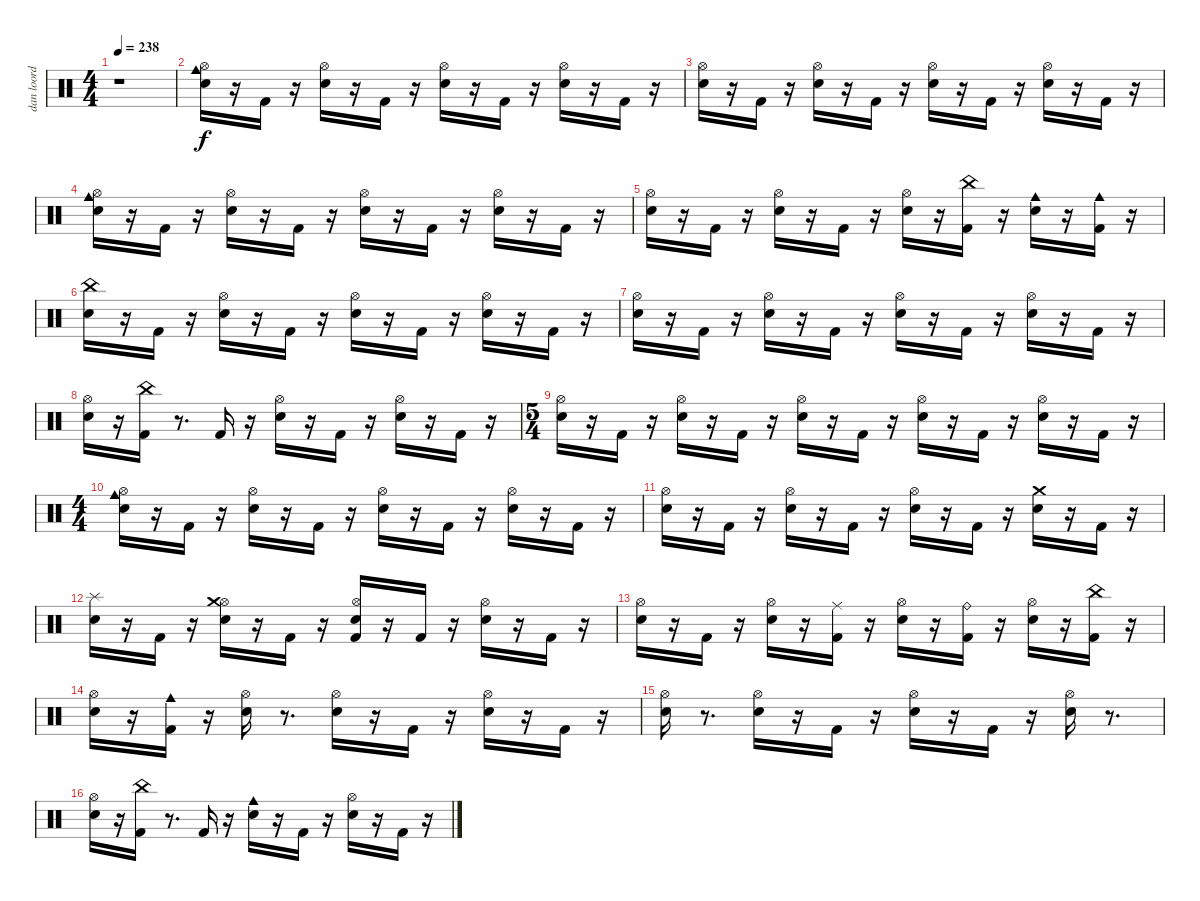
\track ("dan loord foord" "dan loord ") {instrument percussion}
\staff {score}
\articulation defaults
\ts (4 4)
\tempo 238
\clef neutral
\ks c
r.1{dy f} |
("Snare (hit) 2" "Hi-Hat (open)" "Cowbell medium (hit)").16 r.16 "Kick (hit) 2".16 r.16 ("Snare (hit) 2" "Hi-Hat (open)").16 r.16 "Kick (hit) 2".16 r.16 ("Snare (hit) 2" "Hi-Hat (open)").16 r.16 "Kick (hit) 2".16 r.16 ("Snare (hit) 2" "Hi-Hat (open)").16 r.16 "Kick (hit) 2".16 r.16 |
("Snare (hit) 2" "Hi-Hat (open)").16 r.16 "Kick (hit) 2".16 r.16 ("Snare (hit) 2" "Hi-Hat (open)").16 r.16 "Kick (hit) 2".16 r.16 ("Snare (hit) 2" "Hi-Hat (open)").16 r.16 "Kick (hit) 2".16 r.16 ("Snare (hit) 2" "Hi-Hat (open)").16 r.16 "Kick (hit) 2".16 r.16 |
("Snare (hit) 2" "Hi-Hat (open)" "Cowbell medium (hit)").16 r.16 "Kick (hit) 2".16 r.16 ("Snare (hit) 2" "Hi-Hat (open)").16 r.16 "Kick (hit) 2".16 r.16 ("Snare (hit) 2" "Hi-Hat (open)").16 r.16 "Kick (hit) 2".16 r.16 ("Snare (hit) 2" "Hi-Hat (open)").16 r.16 "Kick (hit) 2".16 r.16 |
("Snare (hit) 2" "Hi-Hat (open)").16 r.16 "Kick (hit) 2".16 r.16 ("Snare (hit) 2" "Hi-Hat (open)").16 r.16 "Kick (hit) 2".16 r.16 ("Snare (hit) 2" "Hi-Hat (open)").16 r.16 ("Kick (hit) 2" "China (hit)").16 r.16 ("Snare (hit) 2" "Cowbell medium (hit)").16 r.16 ("Kick (hit) 2" "Cowbell medium (hit)").16 r.16 |
("Snare (hit) 2" "China (hit)").16 r.16 "Kick (hit) 2".16 r.16 ("Snare (hit) 2" "Hi-Hat (open)").16 r.16 "Kick (hit) 2".16 r.16 ("Snare (hit) 2" "Hi-Hat (open)").16 r.16 "Kick (hit) 2".16 r.16 ("Snare (hit) 2" "Hi-Hat (open)").16 r.16 "Kick (hit) 2".16 r.16 |
("Snare (hit) 2" "Hi-Hat (open)").16 r.16 "Kick (hit) 2".16 r.16 ("Snare (hit) 2" "Hi-Hat (open)").16 r.16 "Kick (hit) 2".16 r.16 ("Snare (hit) 2" "Hi-Hat (open)").16 r.16 "Kick (hit) 2".16 r.16 ("Snare (hit) 2" "Hi-Hat (open)").16 r.16 "Kick (hit) 2".16 r.16 |
("Snare (hit) 2" "Hi-Hat (open)").16 r.16 ("Kick (hit) 2" "China (hit)").16 r.8{d} "Kick (hit) 2".16 r.16 ("Snare (hit) 2" "Hi-Hat (open)").16 r.16 "Kick (hit) 2".16 r.16 ("Snare (hit) 2" "Hi-Hat (open)").16 r.16 "Kick (hit) 2".16 r.16 |
\ts (5 4)
("Snare (hit) 2" "Hi-Hat (open)").16 r.16 "Kick (hit) 2".16 r.16 ("Snare (hit) 2" "Hi-Hat (open)").16 r.16 "Kick (hit) 2".16 r.16 ("Snare (hit) 2" "Hi-Hat (open)").16 r.16 "Kick (hit) 2".16 r.16 ("Snare (hit) 2" "Hi-Hat (open)").16 r.16 "Kick (hit) 2".16 r.16 ("Snare (hit) 2" "Hi-Hat (open)").16 r.16 "Kick (hit) 2".16 r.16 |
\ts (4 4)
("Snare (hit) 2" "Hi-Hat (open)" "Cowbell medium (hit)").16 r.16 "Kick (hit) 2".16 r.16 ("Snare (hit) 2" "Hi-Hat (open)").16 r.16 "Kick (hit) 2".16 r.16 ("Snare (hit) 2" "Hi-Hat (open)").16 r.16 "Kick (hit) 2".16 r.16 ("Snare (hit) 2" "Hi-Hat (open)").16 r.16 "Kick (hit) 2".16 r.16 |
("Snare (hit) 2" "Hi-Hat (open)").16 r.16 "Kick (hit) 2".16 r.16 ("Snare (hit) 2" "Hi-Hat (open)").16 r.16 "Kick (hit) 2".16 r.16 ("Snare (hit) 2" "Hi-Hat (open)").16 r.16 "Kick (hit) 2".16 r.16 ("Snare (hit) 2" "Crash medium (hit)").16 r.16 "Kick (hit) 2".16 r.16 |
("Snare (hit) 2" "Splash (hit)").16 r.16 "Kick (hit) 2".16 r.16 ("Snare (hit) 2" "Hi-Hat (open)" "Crash medium (hit)").16 r.16 "Kick (hit) 2".16 r.16 ("Kick (hit) 2" "Snare (hit) 2" "Hi-Hat (open)").16 r.16 "Kick (hit) 2".16 r.16 ("Snare (hit) 2" "Hi-Hat (open)").16 r.16 "Kick (hit) 2".16 r.16 |
("Snare (hit) 2" "Hi-Hat (open)").16 r.16 "Kick (hit) 2".16 r.16 ("Snare (hit) 2" "Hi-Hat (open)").16 r.16 ("Kick (hit) 2" "Ride (middle)").16 r.16 ("Snare (hit) 2" "Hi-Hat (open)").16 r.16 ("Kick (hit) 2" "Ride (bell)").16 r.16 ("Snare (hit) 2" "Hi-Hat (open)").16 r.16 ("Kick (hit) 2" "China (hit)").16 r.16 |
("Snare (hit) 2" "Hi-Hat (open)").16 r.16 ("Kick (hit) 2" "Cowbell medium (hit)").16 r.16 ("Snare (hit) 2" "Hi-Hat (open)").16 r.8{d} ("Snare (hit) 2" "Hi-Hat (open)").16 r.16 "Kick (hit) 2".16 r.16 ("Snare (hit) 2" "Hi-Hat (open)").16 r.16 "Kick (hit) 2".16 r.16 |
("Snare (hit) 2" "Hi-Hat (open)").16 r.8{d} ("Snare (hit) 2" "Hi-Hat (open)").16 r.16 "Kick (hit) 2".16 r.16 ("Snare (hit) 2" "Hi-Hat (open)").16 r.16 "Kick (hit) 2".16 r.16 ("Snare (hit) 2" "Hi-Hat (open)").16 r.8{d} |
("Snare (hit) 2" "Hi-Hat (open)").16 r.16 ("Kick (hit) 2" "China (hit)").16 r.8{d} "Kick (hit) 2".16 r.16 ("Snare (hit) 2" "Cowbell medium (hit)").16 r.16 "Kick (hit) 2".16 r.16 ("Snare (hit) 2" "Hi-Hat (open)").16 r.16 "Kick (hit) 2".16 r.16
